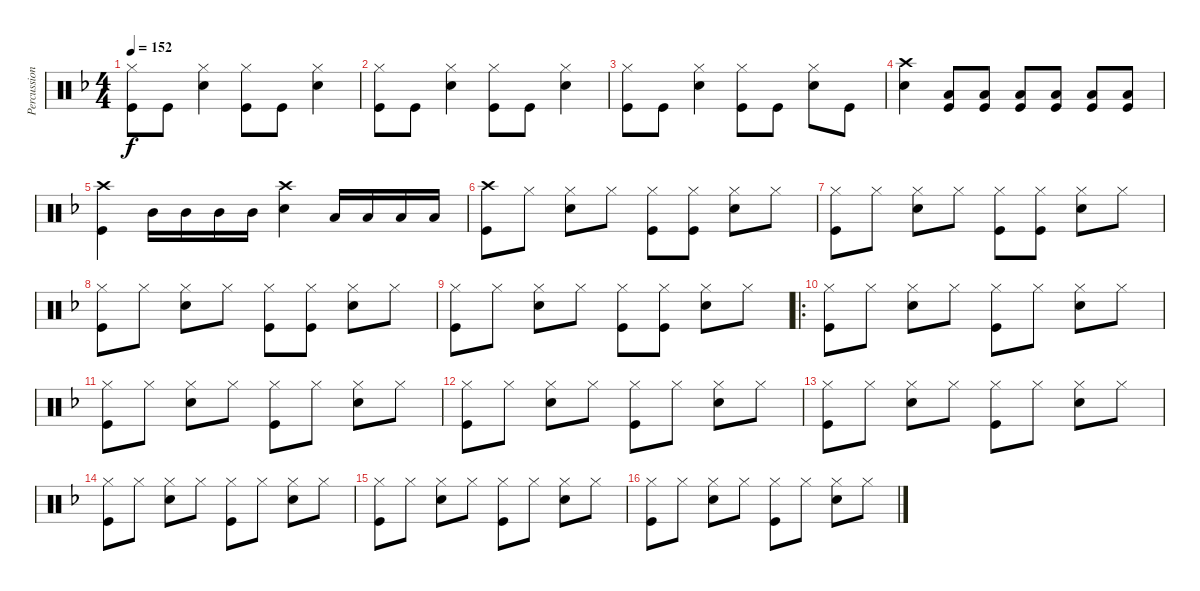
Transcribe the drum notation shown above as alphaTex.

\track ("Percussion" "Percussion") {instrument percussion}
\staff {score}
\articulation defaults
\ts (4 4)
\tempo 152
\clef neutral
\ks f
("Hi-Hat (closed)" "Kick (hit)").8{dy f} "Kick (hit)".8 ("Hi-Hat (closed)" "Electric Snare (hit)").4 ("Hi-Hat (closed)" "Kick (hit)").8 "Kick (hit)".8 ("Hi-Hat (closed)" "Electric Snare (hit)").4 |
("Hi-Hat (closed)" "Kick (hit)").8 "Kick (hit)".8 ("Hi-Hat (closed)" "Electric Snare (hit)").4 ("Hi-Hat (closed)" "Kick (hit)").8 "Kick (hit)".8 ("Hi-Hat (closed)" "Electric Snare (hit)").4 |
("Hi-Hat (closed)" "Kick (hit)").8 "Kick (hit)".8 ("Hi-Hat (closed)" "Electric Snare (hit)").4 ("Hi-Hat (closed)" "Kick (hit)").8 "Kick (hit)".8 ("Hi-Hat (closed)" "Electric Snare (hit)").8 "Kick (hit)".8 |
("Crash high (hit)" "Electric Snare (hit)").4 ("Kick (hit)" "Low Tom (hit)").8 ("Kick (hit)" "Low Tom (hit)").8 ("Kick (hit)" "Low Tom (hit)").8 ("Kick (hit)" "Low Tom (hit)").8 ("Kick (hit)" "Low Tom (hit)").8 ("Kick (hit)" "Low Tom (hit)").8 |
("Crash high (hit)" "Kick (hit)").4 "Mid Tom (hit)".16 "Mid Tom (hit)".16 "Mid Tom (hit)".16 "Mid Tom (hit)".16 ("Crash high (hit)" "Electric Snare (hit)").4 "Low Tom (hit)".16 "Low Tom (hit)".16 "Low Tom (hit)".16 "Low Tom (hit)".16 |
("Crash high (hit)" "Kick (hit)").8 "Hi-Hat (closed)".8 ("Hi-Hat (closed)" "Electric Snare (hit)").8 "Hi-Hat (closed)".8 ("Hi-Hat (closed)" "Kick (hit)").8 ("Hi-Hat (closed)" "Kick (hit)").8 ("Hi-Hat (closed)" "Electric Snare (hit)").8 "Hi-Hat (closed)".8 |
("Hi-Hat (closed)" "Kick (hit)").8 "Hi-Hat (closed)".8 ("Hi-Hat (closed)" "Electric Snare (hit)").8 "Hi-Hat (closed)".8 ("Hi-Hat (closed)" "Kick (hit)").8 ("Hi-Hat (closed)" "Kick (hit)").8 ("Hi-Hat (closed)" "Electric Snare (hit)").8 "Hi-Hat (closed)".8 |
("Hi-Hat (closed)" "Kick (hit)").8 "Hi-Hat (closed)".8 ("Hi-Hat (closed)" "Electric Snare (hit)").8 "Hi-Hat (closed)".8 ("Hi-Hat (closed)" "Kick (hit)").8 ("Hi-Hat (closed)" "Kick (hit)").8 ("Hi-Hat (closed)" "Electric Snare (hit)").8 "Hi-Hat (closed)".8 |
("Hi-Hat (closed)" "Kick (hit)").8 "Hi-Hat (closed)".8 ("Hi-Hat (closed)" "Electric Snare (hit)").8 "Hi-Hat (closed)".8 ("Hi-Hat (closed)" "Kick (hit)").8 ("Hi-Hat (closed)" "Kick (hit)").8 ("Hi-Hat (closed)" "Electric Snare (hit)").8 "Hi-Hat (closed)".8 |
\ro
("Hi-Hat (closed)" "Kick (hit)").8 "Hi-Hat (closed)".8 ("Hi-Hat (closed)" "Electric Snare (hit)").8 "Hi-Hat (closed)".8 ("Hi-Hat (closed)" "Kick (hit)").8 "Hi-Hat (closed)".8 ("Hi-Hat (closed)" "Electric Snare (hit)").8 "Hi-Hat (closed)".8 |
("Hi-Hat (closed)" "Kick (hit)").8 "Hi-Hat (closed)".8 ("Hi-Hat (closed)" "Electric Snare (hit)").8 "Hi-Hat (closed)".8 ("Hi-Hat (closed)" "Kick (hit)").8 "Hi-Hat (closed)".8 ("Hi-Hat (closed)" "Electric Snare (hit)").8 "Hi-Hat (closed)".8 |
("Hi-Hat (closed)" "Kick (hit)").8 "Hi-Hat (closed)".8 ("Hi-Hat (closed)" "Electric Snare (hit)").8 "Hi-Hat (closed)".8 ("Hi-Hat (closed)" "Kick (hit)").8 "Hi-Hat (closed)".8 ("Hi-Hat (closed)" "Electric Snare (hit)").8 "Hi-Hat (closed)".8 |
("Hi-Hat (closed)" "Kick (hit)").8 "Hi-Hat (closed)".8 ("Hi-Hat (closed)" "Electric Snare (hit)").8 "Hi-Hat (closed)".8 ("Hi-Hat (closed)" "Kick (hit)").8 "Hi-Hat (closed)".8 ("Hi-Hat (closed)" "Electric Snare (hit)").8 "Hi-Hat (closed)".8 |
("Hi-Hat (closed)" "Kick (hit)").8 "Hi-Hat (closed)".8 ("Hi-Hat (closed)" "Electric Snare (hit)").8 "Hi-Hat (closed)".8 ("Hi-Hat (closed)" "Kick (hit)").8 "Hi-Hat (closed)".8 ("Hi-Hat (closed)" "Electric Snare (hit)").8 "Hi-Hat (closed)".8 |
("Hi-Hat (closed)" "Kick (hit)").8 "Hi-Hat (closed)".8 ("Hi-Hat (closed)" "Electric Snare (hit)").8 "Hi-Hat (closed)".8 ("Hi-Hat (closed)" "Kick (hit)").8 "Hi-Hat (closed)".8 ("Hi-Hat (closed)" "Electric Snare (hit)").8 "Hi-Hat (closed)".8 |
("Hi-Hat (closed)" "Kick (hit)").8 "Hi-Hat (closed)".8 ("Hi-Hat (closed)" "Electric Snare (hit)").8 "Hi-Hat (closed)".8 ("Hi-Hat (closed)" "Kick (hit)").8 "Hi-Hat (closed)".8 ("Hi-Hat (closed)" "Electric Snare (hit)").8 "Hi-Hat (closed)".8
